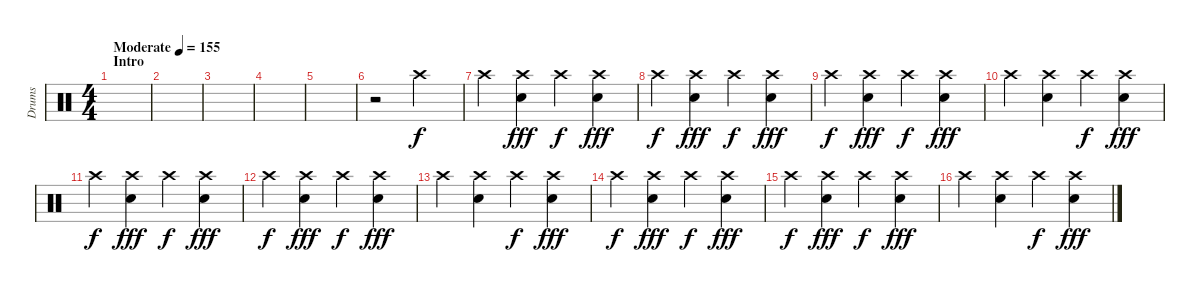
\track ("Drums" "Drums") {instrument percussion}
\staff {score}
\articulation defaults
\ts (4 4)
\section ("" "Intro")
\tempo (155 "Moderate")
\clef neutral
\ks c
|
|
|
|
|
r.2{volume 0} "Crash high (hit)".2{volume 13} |
"Crash high (hit)".4 ("Crash high (hit)" "Electric Snare (hit)").4{dy fff} "Crash high (hit)".4{dy f} ("Crash high (hit)" "Electric Snare (hit)").4{dy fff} |
"Crash high (hit)".4{dy f} ("Crash high (hit)" "Electric Snare (hit)").4{dy fff} "Crash high (hit)".4{dy f} ("Crash high (hit)" "Electric Snare (hit)").4{dy fff} |
"Crash high (hit)".4{dy f} ("Crash high (hit)" "Electric Snare (hit)").4{dy fff} "Crash high (hit)".4{dy f} ("Crash high (hit)" "Electric Snare (hit)").4{dy fff} |
"Crash high (hit)".4 ("Crash high (hit)" "Electric Snare (hit)").4 "Crash high (hit)".4{dy f} ("Crash high (hit)" "Electric Snare (hit)").4{dy fff} |
"Crash high (hit)".4{dy f} ("Crash high (hit)" "Electric Snare (hit)").4{dy fff} "Crash high (hit)".4{dy f} ("Crash high (hit)" "Electric Snare (hit)").4{dy fff} |
"Crash high (hit)".4{dy f} ("Crash high (hit)" "Electric Snare (hit)").4{dy fff} "Crash high (hit)".4{dy f} ("Crash high (hit)" "Electric Snare (hit)").4{dy fff} |
"Crash high (hit)".4 ("Crash high (hit)" "Electric Snare (hit)").4 "Crash high (hit)".4{dy f} ("Crash high (hit)" "Electric Snare (hit)").4{dy fff} |
"Crash high (hit)".4{dy f} ("Crash high (hit)" "Electric Snare (hit)").4{dy fff} "Crash high (hit)".4{dy f} ("Crash high (hit)" "Electric Snare (hit)").4{dy fff} |
"Crash high (hit)".4{dy f} ("Crash high (hit)" "Electric Snare (hit)").4{dy fff} "Crash high (hit)".4{dy f} ("Crash high (hit)" "Electric Snare (hit)").4{dy fff} |
"Crash high (hit)".4 ("Crash high (hit)" "Electric Snare (hit)").4 "Crash high (hit)".4{dy f} ("Crash high (hit)" "Electric Snare (hit)").4{dy fff}
